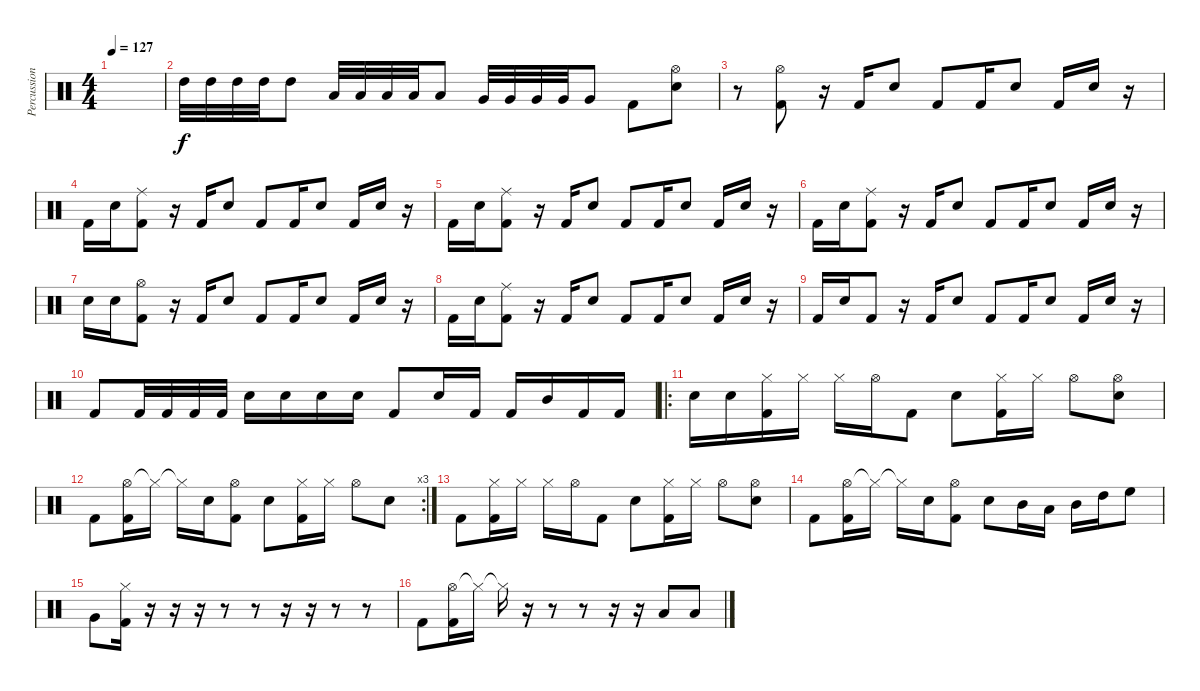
\track ("Percussion" "Percussion") {instrument percussion}
\staff {score}
\articulation defaults
\ts (4 4)
\tempo 127
\clef neutral
\ks c
|
"High Tom (hit)".32 "High Tom (hit)".32 "High Tom (hit)".32 "High Tom (hit)".32 "High Tom (hit)".8 "Low Tom (hit)".32 "Low Tom (hit)".32 "Low Tom (hit)".32 "Low Tom (hit)".32 "Low Tom (hit)".8 "Very Low Tom (hit)".32 "Very Low Tom (hit)".32 "Very Low Tom (hit)".32 "Very Low Tom (hit)".32 "Very Low Tom (hit)".8 "Kick (hit) 2".8 ("Hi-Hat (open)" "Electric Snare (hit)").8 |
r.8 ("Hi-Hat (open)" "Kick (hit) 2").8 r.16 "Kick (hit) 2".16 "Electric Snare (hit)".8 "Kick (hit) 2".8 "Kick (hit) 2".16 "Electric Snare (hit)".8 "Kick (hit) 2".16 "Electric Snare (hit)".16 r.16 |
"Kick (hit) 2".16 "Electric Snare (hit)".16 ("Ride (middle)" "Kick (hit) 2").8 r.16 "Kick (hit) 2".16 "Electric Snare (hit)".8 "Kick (hit) 2".8 "Kick (hit) 2".16 "Electric Snare (hit)".8 "Kick (hit) 2".16 "Electric Snare (hit)".16 r.16 |
"Kick (hit) 2".16 "Electric Snare (hit)".16 ("Ride (middle)" "Kick (hit) 2").8 r.16 "Kick (hit) 2".16 "Electric Snare (hit)".8 "Kick (hit) 2".8 "Kick (hit) 2".16 "Electric Snare (hit)".8 "Kick (hit) 2".16 "Electric Snare (hit)".16 r.16 |
"Kick (hit) 2".16 "Electric Snare (hit)".16 ("Ride (middle)" "Kick (hit) 2").8 r.16 "Kick (hit) 2".16 "Electric Snare (hit)".8 "Kick (hit) 2".8 "Kick (hit) 2".16 "Electric Snare (hit)".8 "Kick (hit) 2".16 "Electric Snare (hit)".16 r.16 |
"Electric Snare (hit)".16 "Electric Snare (hit)".16 ("Hi-Hat (open)" "Kick (hit) 2").8 r.16 "Kick (hit) 2".16 "Electric Snare (hit)".8 "Kick (hit) 2".8 "Kick (hit) 2".16 "Electric Snare (hit)".8 "Kick (hit) 2".16 "Electric Snare (hit)".16 r.16 |
"Kick (hit) 2".16 "Electric Snare (hit)".16 ("Ride (middle)" "Kick (hit) 2").8 r.16 "Kick (hit) 2".16 "Electric Snare (hit)".8 "Kick (hit) 2".8 "Kick (hit) 2".16 "Electric Snare (hit)".8 "Kick (hit) 2".16 "Electric Snare (hit)".16 r.16 |
"Kick (hit) 2".16 "Electric Snare (hit)".16 "Kick (hit) 2".8 r.16 "Kick (hit) 2".16 "Electric Snare (hit)".8 "Kick (hit) 2".8 "Kick (hit) 2".16 "Electric Snare (hit)".8 "Kick (hit) 2".16 "Electric Snare (hit)".16 r.16 |
"Kick (hit) 2".8 "Kick (hit) 2".32 "Kick (hit) 2".32 "Kick (hit) 2".32 "Kick (hit) 2".32 "Electric Snare (hit)".16 "Electric Snare (hit)".16 "Electric Snare (hit)".16 "Electric Snare (hit)".16 "Kick (hit) 2".8 "Electric Snare (hit)".16 "Kick (hit) 2".16 "Kick (hit) 2".16 "Mid Tom (hit)".16 "Kick (hit) 2".16 "Kick (hit) 2".16 |
\ro "Electric Snare (hit)".16 "Electric Snare (hit)".16
("Hi-Hat (closed)" "Kick (hit) 2").16 "Hi-Hat (closed)".16 "Hi-Hat (closed)".16 "Hi-Hat (open)".16 "Kick (hit) 2".8 "Electric Snare (hit)".8 ("Hi-Hat (closed)" "Kick (hit) 2").16 "Hi-Hat (closed)".16 "Hi-Hat (open)".8 ("Hi-Hat (open)" "Electric Snare (hit)").8 |
\rc 3 "Kick (hit) 2".8
("Hi-Hat (open)" "Kick (hit) 2").16 "Hi-Hat (closed)"{t}.16 "Hi-Hat (closed)"{t}.16 "Electric Snare (hit)".16 ("Hi-Hat (open)" "Kick (hit) 2").8 "Electric Snare (hit)".8 ("Hi-Hat (closed)" "Kick (hit) 2").16 "Hi-Hat (closed)".16 "Hi-Hat (open)".8 "Electric Snare (hit)".8 |
"Kick (hit) 2".8 ("Hi-Hat (closed)" "Kick (hit) 2").16 "Hi-Hat (closed)".16 "Hi-Hat (closed)".16 "Hi-Hat (open)".16 "Kick (hit) 2".8 "Electric Snare (hit)".8 ("Hi-Hat (closed)" "Kick (hit) 2").16 "Hi-Hat (closed)".16 "Hi-Hat (open)".8 ("Hi-Hat (open)" "Electric Snare (hit)").8 |
"Kick (hit) 2".8 ("Hi-Hat (open)" "Kick (hit) 2").16 "Hi-Hat (closed)"{t}.16 "Hi-Hat (closed)"{t}.16 "Electric Snare (hit)".16 ("Hi-Hat (open)" "Kick (hit) 2").8 "Electric Snare (hit)".8 "Mid Tom (hit)".16 "Low Tom (hit)".16 "Mid Tom (hit)".16 "High Tom (hit)".16 "High Floor Tom (hit)".8 |
"Very Low Tom (hit)".8 ("Hi-Hat (closed)" "Kick (hit) 2").16 r.16 r.16 r.16 r.8 r.8 r.16 r.16 r.8 r.8 |
"Kick (hit) 2".8 ("Hi-Hat (open)" "Kick (hit) 2").16 "Hi-Hat (closed)"{t}.16 "Hi-Hat (closed)"{t}.16 r.16 r.8 r.8 r.16 r.16 "Low Tom (hit)".8 "Low Tom (hit)".8
